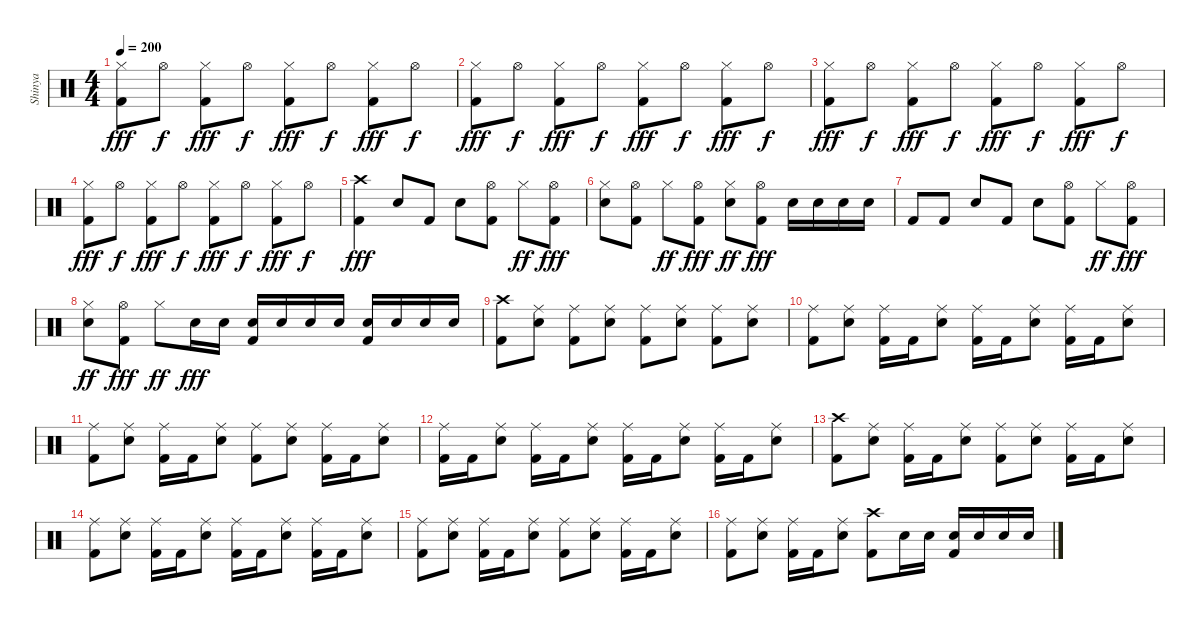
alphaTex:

\track ("Shinya" "Shinya") {instrument percussion}
\staff {score}
\articulation defaults
\ts (4 4)
\tempo 200
\clef neutral
\ks c
("Hi-Hat (closed)" "Kick (hit) 2").8{dy fff} "Hi-Hat (open)".8{dy f} ("Hi-Hat (closed)" "Kick (hit) 2").8{dy fff} "Hi-Hat (open)".8{dy f} ("Hi-Hat (closed)" "Kick (hit) 2").8{dy fff} "Hi-Hat (open)".8{dy f} ("Hi-Hat (closed)" "Kick (hit) 2").8{dy fff} "Hi-Hat (open)".8{dy f} |
("Hi-Hat (closed)" "Kick (hit) 2").8{dy fff} "Hi-Hat (open)".8{dy f} ("Hi-Hat (closed)" "Kick (hit) 2").8{dy fff} "Hi-Hat (open)".8{dy f} ("Hi-Hat (closed)" "Kick (hit) 2").8{dy fff} "Hi-Hat (open)".8{dy f} ("Hi-Hat (closed)" "Kick (hit) 2").8{dy fff} "Hi-Hat (open)".8{dy f} |
("Hi-Hat (closed)" "Kick (hit) 2").8{dy fff} "Hi-Hat (open)".8{dy f} ("Hi-Hat (closed)" "Kick (hit) 2").8{dy fff} "Hi-Hat (open)".8{dy f} ("Hi-Hat (closed)" "Kick (hit) 2").8{dy fff} "Hi-Hat (open)".8{dy f} ("Hi-Hat (closed)" "Kick (hit) 2").8{dy fff} "Hi-Hat (open)".8{dy f} |
("Hi-Hat (closed)" "Kick (hit) 2").8{dy fff} "Hi-Hat (open)".8{dy f} ("Hi-Hat (closed)" "Kick (hit) 2").8{dy fff} "Hi-Hat (open)".8{dy f} ("Hi-Hat (closed)" "Kick (hit) 2").8{dy fff} "Hi-Hat (open)".8{dy f} ("Hi-Hat (closed)" "Kick (hit) 2").8{dy fff} "Hi-Hat (open)".8{dy f} |
("Kick (hit) 2" "Crash high (hit)").4{dy fff} "Snare (hit) 2".8 "Kick (hit) 2".8 "Snare (hit) 2".8 ("Hi-Hat (open)" "Kick (hit) 2").8 "Hi-Hat (closed)".8{dy ff} ("Hi-Hat (open)" "Kick (hit) 2").8{dy fff} |
("Hi-Hat (closed)" "Snare (hit) 2").8 ("Hi-Hat (open)" "Kick (hit) 2").8 "Hi-Hat (closed)".8{dy ff} ("Hi-Hat (open)" "Kick (hit) 2").8{dy fff} ("Snare (hit) 2" "Hi-Hat (closed)").8{dy ff} ("Hi-Hat (open)" "Kick (hit) 2").8{dy fff} "Snare (hit) 2".16 "Snare (hit) 2".16 "Snare (hit) 2".16 "Snare (hit) 2".16 |
"Kick (hit) 2".8 "Kick (hit) 2".8 "Snare (hit) 2".8 "Kick (hit) 2".8 "Snare (hit) 2".8 ("Hi-Hat (open)" "Kick (hit) 2").8 "Hi-Hat (closed)".8{dy ff} ("Hi-Hat (open)" "Kick (hit) 2").8{dy fff} |
("Snare (hit) 2" "Hi-Hat (closed)").8{dy ff} ("Hi-Hat (open)" "Kick (hit) 2").8{dy fff} "Hi-Hat (closed)".8{dy ff} "Snare (hit) 2".16{dy fff} "Snare (hit) 2".16 ("Snare (hit) 2" "Kick (hit) 2").16 "Snare (hit) 2".16 "Snare (hit) 2".16 "Snare (hit) 2".16 ("Snare (hit) 2" "Kick (hit) 2").16 "Snare (hit) 2".16 "Snare (hit) 2".16 "Snare (hit) 2".16 |
("Crash high (hit)" "Kick (hit) 2").8 ("Snare (hit) 2" "Ride (middle)").8 ("Ride (middle)" "Kick (hit) 2").8 ("Snare (hit) 2" "Ride (middle)").8 ("Ride (middle)" "Kick (hit) 2").8 ("Snare (hit) 2" "Ride (middle)").8 ("Ride (middle)" "Kick (hit) 2").8 ("Snare (hit) 2" "Ride (middle)").8 |
("Ride (middle)" "Kick (hit) 2").8 ("Snare (hit) 2" "Ride (middle)").8 ("Ride (middle)" "Kick (hit) 2").16 "Kick (hit) 2".16 ("Snare (hit) 2" "Ride (middle)").8 ("Ride (middle)" "Kick (hit) 2").16 "Kick (hit) 2".16 ("Snare (hit) 2" "Ride (middle)").8 ("Ride (middle)" "Kick (hit) 2").16 "Kick (hit) 2".16 ("Snare (hit) 2" "Ride (middle)").8 |
("Ride (middle)" "Kick (hit) 2").8 ("Snare (hit) 2" "Ride (middle)").8 ("Ride (middle)" "Kick (hit) 2").16 "Kick (hit) 2".16 ("Snare (hit) 2" "Ride (middle)").8 ("Ride (middle)" "Kick (hit) 2").8 ("Snare (hit) 2" "Ride (middle)").8 ("Ride (middle)" "Kick (hit) 2").16 "Kick (hit) 2".16 ("Snare (hit) 2" "Ride (middle)").8 |
("Ride (middle)" "Kick (hit) 2").16 "Kick (hit) 2".16 ("Snare (hit) 2" "Ride (middle)").8 ("Ride (middle)" "Kick (hit) 2").16 "Kick (hit) 2".16 ("Snare (hit) 2" "Ride (middle)").8 ("Ride (middle)" "Kick (hit) 2").16 "Kick (hit) 2".16 ("Snare (hit) 2" "Ride (middle)").8 ("Ride (middle)" "Kick (hit) 2").16 "Kick (hit) 2".16 ("Snare (hit) 2" "Ride (middle)").8 |
("Crash high (hit)" "Kick (hit) 2").8 ("Snare (hit) 2" "Ride (middle)").8 ("Ride (middle)" "Kick (hit) 2").16 "Kick (hit) 2".16 ("Snare (hit) 2" "Ride (middle)").8 ("Ride (middle)" "Kick (hit) 2").8 ("Snare (hit) 2" "Ride (middle)").8 ("Ride (middle)" "Kick (hit) 2").16 "Kick (hit) 2".16 ("Snare (hit) 2" "Ride (middle)").8 |
("Ride (middle)" "Kick (hit) 2").8 ("Snare (hit) 2" "Ride (middle)").8 ("Ride (middle)" "Kick (hit) 2").16 "Kick (hit) 2".16 ("Snare (hit) 2" "Ride (middle)").8 ("Ride (middle)" "Kick (hit) 2").16 "Kick (hit) 2".16 ("Snare (hit) 2" "Ride (middle)").8 ("Ride (middle)" "Kick (hit) 2").16 "Kick (hit) 2".16 ("Snare (hit) 2" "Ride (middle)").8 |
("Ride (middle)" "Kick (hit) 2").8 ("Snare (hit) 2" "Ride (middle)").8 ("Ride (middle)" "Kick (hit) 2").16 "Kick (hit) 2".16 ("Snare (hit) 2" "Ride (middle)").8 ("Ride (middle)" "Kick (hit) 2").8 ("Snare (hit) 2" "Ride (middle)").8 ("Ride (middle)" "Kick (hit) 2").16 "Kick (hit) 2".16 ("Snare (hit) 2" "Ride (middle)").8 |
("Ride (middle)" "Kick (hit) 2").8 ("Snare (hit) 2" "Ride (middle)").8 ("Ride (middle)" "Kick (hit) 2").16 "Kick (hit) 2".16 ("Snare (hit) 2" "Ride (middle)").8 ("Kick (hit) 2" "Crash high (hit)").8 "Snare (hit) 2".16 "Snare (hit) 2".16 ("Snare (hit) 2" "Kick (hit) 2").16 "Snare (hit) 2".16 "Snare (hit) 2".16 "Snare (hit) 2".16
